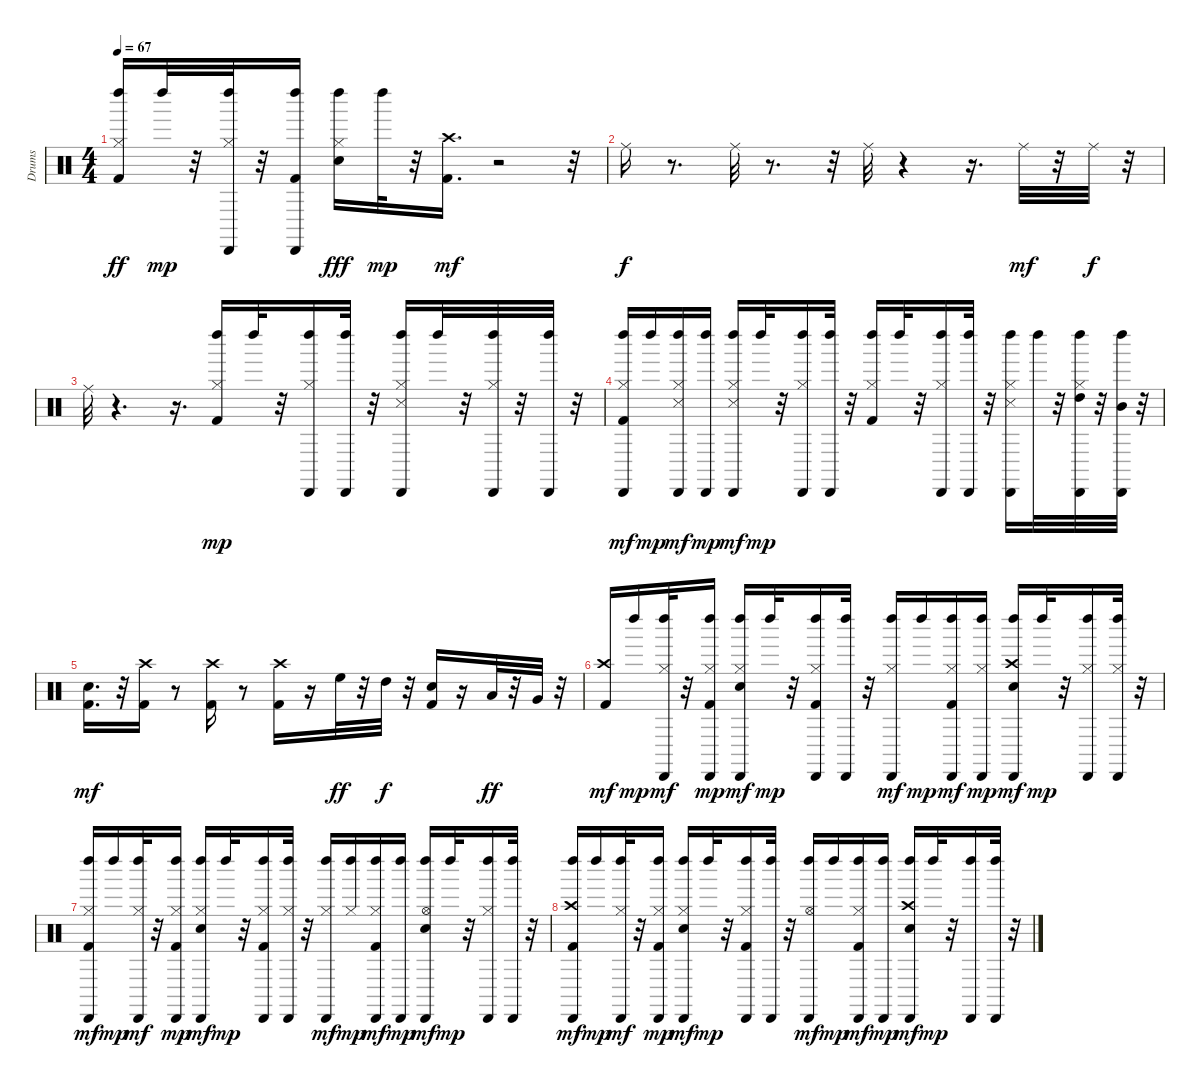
\track ("Drums" "Drums") {instrument percussion}
\staff {score}
\articulation defaults
\ts (4 4)
\tempo 67
\clef neutral
\ks c
("Hi-Hat (closed)" "Left Maraca (hit)" "Kick (hit) 2").16{dy ff} "Left Maraca (hit)".32{dy mp} r.32 ("Cabasa (hit)" "Left Maraca (hit)" "Hi-Hat (closed)").32 r.32 ("Cabasa (hit)" "Left Maraca (hit)" "Kick (hit) 2").16 ("Left Maraca (hit)" "Electric Snare (hit)" "Hi-Hat (closed)").16{dy fff} "Left Maraca (hit)".32{dy mp} r.32 ("Kick (hit) 2" "Crash high (hit)").16{d dy mf} r.2 r.32 |
"Ride (middle)".16{dy f} r.8{d} "Ride (middle)".32 r.8{d} r.32 "Ride (middle)".32 r.4 r.16{d} "Ride (middle)".32{dy mf} r.32 "Ride (middle)".32{dy f} r.32 |
"Ride (middle)".32 r.4{d} r.16{d} ("Kick (hit) 2" "Hi-Hat (closed)" "Left Maraca (hit)").16{dy mp} "Left Maraca (hit)".32 r.32 ("Hi-Hat (closed)" "Cabasa (hit)" "Left Maraca (hit)").16 ("Cabasa (hit)" "Left Maraca (hit)").32 r.32 ("Snare (side stick) 3" "Hi-Hat (closed)" "Cabasa (hit)" "Left Maraca (hit)").16 "Left Maraca (hit)".32 r.32 ("Cabasa (hit)" "Left Maraca (hit)" "Hi-Hat (closed)").32 r.32 ("Cabasa (hit)" "Left Maraca (hit)").32 r.32 |
("Hi-Hat (closed)" "Left Maraca (hit)" "Kick (hit) 2" "Cabasa (hit)").16{dy mf} "Left Maraca (hit)".16{dy mp} ("Left Maraca (hit)" "Snare (side stick) 3" "Hi-Hat (closed)" "Cabasa (hit)").16{dy mf} ("Cabasa (hit)" "Left Maraca (hit)").16{dy mp} ("Left Maraca (hit)" "Snare (side stick) 3" "Hi-Hat (closed)" "Cabasa (hit)").16{dy mf} "Left Maraca (hit)".32{dy mp} r.32 ("Hi-Hat (closed)" "Cabasa (hit)" "Left Maraca (hit)").16 ("Cabasa (hit)" "Left Maraca (hit)").32 r.32 ("Kick (hit) 2" "Hi-Hat (closed)" "Left Maraca (hit)").16 "Left Maraca (hit)".32 r.32 ("Hi-Hat (closed)" "Cabasa (hit)" "Left Maraca (hit)").16 ("Cabasa (hit)" "Left Maraca (hit)").32 r.32 ("Snare (side stick) 3" "Hi-Hat (closed)" "Cabasa (hit)" "Left Maraca (hit)").16 "Left Maraca (hit)".32 r.32 ("High Tom (hit)" "Cabasa (hit)" "Left Maraca (hit)" "Hi-Hat (closed)").32 r.32 ("Mid Tom (hit)" "Cabasa (hit)" "Left Maraca (hit)").32 r.32 |
("Electric Snare (hit)" "Kick (hit) 2").16{d dy mf} r.32 ("Kick (hit) 2" "Crash high (hit)").16 r.8 ("Kick (hit) 2" "Crash high (hit)").16 r.8 ("Kick (hit) 2" "Crash high (hit)").16 r.16 "High Floor Tom (hit)".32{dy ff} r.32 "High Tom (hit)".32{dy f} r.32 ("Kick (hit) 2" "Electric Snare (hit)").16 r.16 "Low Tom (hit)".32{dy ff} r.32 "Very Low Tom (hit)".32 r.32 |
("Kick (hit) 2" "Crash high (hit)").16{dy mf} "Left Maraca (hit)".16{dy mp} ("Hi-Hat (closed)" "Left Maraca (hit)" "Cabasa (hit)").32{dy mf} r.32 ("Kick (hit) 2" "Hi-Hat (closed)" "Cabasa (hit)" "Left Maraca (hit)").16{dy mp} ("Electric Snare (hit)" "Left Maraca (hit)" "Hi-Hat (closed)" "Cabasa (hit)").16{dy mf} "Left Maraca (hit)".32{dy mp} r.32 ("Kick (hit) 2" "Hi-Hat (closed)" "Cabasa (hit)" "Left Maraca (hit)").16 ("Cabasa (hit)" "Left Maraca (hit)").32 r.32 ("Hi-Hat (closed)" "Left Maraca (hit)" "Cabasa (hit)").16{dy mf} "Left Maraca (hit)".16{dy mp} ("Hi-Hat (closed)" "Kick (hit) 2" "Left Maraca (hit)" "Cabasa (hit)").16{dy mf} ("Hi-Hat (closed)" "Cabasa (hit)" "Left Maraca (hit)").16{dy mp} ("Electric Snare (hit)" "Crash high (hit)" "Left Maraca (hit)" "Cabasa (hit)").16{dy mf} "Left Maraca (hit)".32{dy mp} r.32 ("Hi-Hat (closed)" "Cabasa (hit)" "Left Maraca (hit)").16 ("Hi-Hat (closed)" "Cabasa (hit)" "Left Maraca (hit)").32 r.32 |
("Kick (hit) 2" "Hi-Hat (closed)" "Left Maraca (hit)" "Cabasa (hit)").16{dy mf} "Left Maraca (hit)".16{dy mp} ("Hi-Hat (closed)" "Left Maraca (hit)" "Cabasa (hit)").32{dy mf} r.32 ("Kick (hit) 2" "Hi-Hat (closed)" "Cabasa (hit)" "Left Maraca (hit)").16{dy mp} ("Electric Snare (hit)" "Left Maraca (hit)" "Hi-Hat (closed)" "Cabasa (hit)").16{dy mf} "Left Maraca (hit)".32{dy mp} r.32 ("Kick (hit) 2" "Hi-Hat (closed)" "Cabasa (hit)" "Left Maraca (hit)").16 ("Hi-Hat (closed)" "Cabasa (hit)" "Left Maraca (hit)").32 r.32 ("Hi-Hat (closed)" "Left Maraca (hit)" "Cabasa (hit)").16{dy mf} ("Hi-Hat (closed)" "Left Maraca (hit)").16{dy mp} ("Kick (hit) 2" "Hi-Hat (closed)" "Left Maraca (hit)" "Cabasa (hit)").16{dy mf} ("Cabasa (hit)" "Left Maraca (hit)").16{dy mp} ("Electric Snare (hit)" "Hi-Hat (open)" "Left Maraca (hit)" "Cabasa (hit)").16{dy mf} "Left Maraca (hit)".32{dy mp} r.32 ("Cabasa (hit)" "Hi-Hat (closed)" "Left Maraca (hit)").16 ("Cabasa (hit)" "Left Maraca (hit)").32 r.32 |
("Kick (hit) 2" "Left Maraca (hit)" "Crash high (hit)" "Cabasa (hit)").16{dy mf} "Left Maraca (hit)".16{dy mp} ("Hi-Hat (closed)" "Left Maraca (hit)" "Cabasa (hit)").32{dy mf} r.32 ("Hi-Hat (closed)" "Cabasa (hit)" "Left Maraca (hit)" "Kick (hit) 2").16{dy mp} ("Electric Snare (hit)" "Hi-Hat (closed)" "Left Maraca (hit)" "Cabasa (hit)").16{dy mf} "Left Maraca (hit)".32{dy mp} r.32 ("Kick (hit) 2" "Hi-Hat (closed)" "Cabasa (hit)" "Left Maraca (hit)").16 ("Cabasa (hit)" "Left Maraca (hit)").32 r.32 ("Hi-Hat (open)" "Left Maraca (hit)" "Cabasa (hit)").16{dy mf} "Left Maraca (hit)".16{dy mp} ("Kick (hit) 2" "Hi-Hat (closed)" "Left Maraca (hit)" "Cabasa (hit)").16{dy mf} ("Cabasa (hit)" "Left Maraca (hit)").16{dy mp} ("Electric Snare (hit)" "Left Maraca (hit)" "Crash high (hit)" "Cabasa (hit)").16{dy mf} "Left Maraca (hit)".32{dy mp} r.32 ("Cabasa (hit)" "Left Maraca (hit)").16 ("Cabasa (hit)" "Left Maraca (hit)").32 r.32
